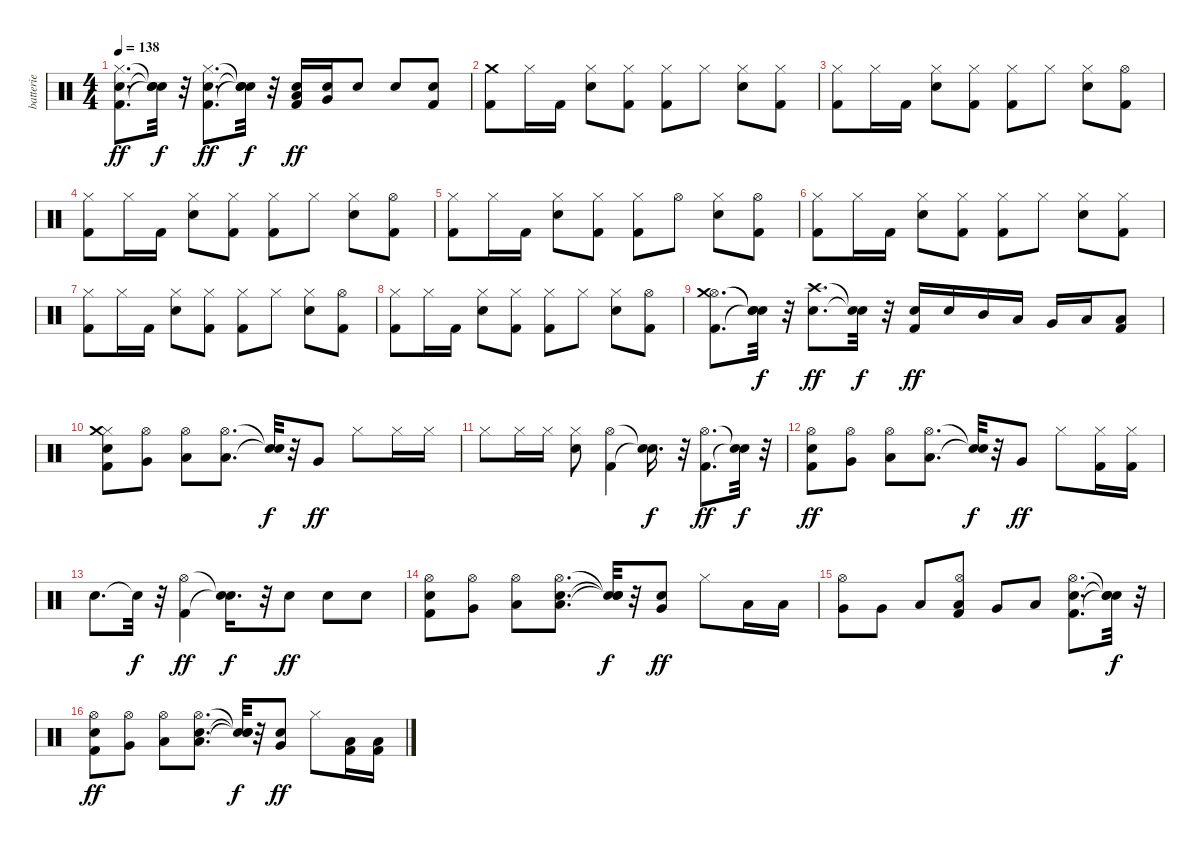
\track ("batterie" "batterie") {instrument percussion}
\staff {score}
\articulation defaults
\ts (4 4)
\tempo 138
\clef neutral
\ks c
("Kick (hit) 2" "Electric Snare (hit)" "Hi-Hat (closed)").8{d dy ff} ("Snare (hit)"{t} "Snare (hit)"{t} "Snare (hit)"{t}).32{dy f} r.32 ("Kick (hit) 2" "Electric Snare (hit)" "Hi-Hat (closed)").8{d dy ff} ("Snare (hit)"{t} "Snare (hit)"{t} "Snare (hit)"{t}).32{dy f} r.32 ("Kick (hit) 2" "Electric Snare (hit)" "Low Tom (hit)").16{dy ff} ("Electric Snare (hit)" "Very Low Tom (hit)").16 "Electric Snare (hit)".8 "Electric Snare (hit)".8 ("Kick (hit) 2" "Electric Snare (hit)").8 |
("Kick (hit) 2" "Crash medium (hit)").8 "Hi-Hat (closed)".16 "Kick (hit) 2".16 ("Electric Snare (hit)" "Hi-Hat (closed)").8 ("Kick (hit) 2" "Hi-Hat (closed)").8 ("Kick (hit) 2" "Hi-Hat (closed)").8 "Hi-Hat (closed)".8 ("Electric Snare (hit)" "Hi-Hat (closed)").8 ("Kick (hit) 2" "Hi-Hat (closed)").8 |
("Kick (hit) 2" "Hi-Hat (closed)").8 "Hi-Hat (closed)".16 "Kick (hit) 2".16 ("Electric Snare (hit)" "Hi-Hat (closed)").8 ("Kick (hit) 2" "Hi-Hat (closed)").8 ("Kick (hit) 2" "Hi-Hat (closed)").8 "Hi-Hat (closed)".8 ("Electric Snare (hit)" "Hi-Hat (closed)").8 ("Kick (hit) 2" "Hi-Hat (open)").8 |
("Kick (hit) 2" "Hi-Hat (closed)").8 "Hi-Hat (closed)".16 "Kick (hit) 2".16 ("Electric Snare (hit)" "Hi-Hat (closed)").8 ("Kick (hit) 2" "Hi-Hat (closed)").8 ("Kick (hit) 2" "Hi-Hat (closed)").8 "Hi-Hat (closed)".8 ("Electric Snare (hit)" "Hi-Hat (closed)").8 ("Kick (hit) 2" "Hi-Hat (open)").8 |
("Kick (hit) 2" "Hi-Hat (closed)").8 "Hi-Hat (closed)".16 "Kick (hit) 2".16 ("Electric Snare (hit)" "Hi-Hat (closed)").8 ("Kick (hit) 2" "Hi-Hat (closed)").8 ("Kick (hit) 2" "Hi-Hat (closed)").8 "Hi-Hat (open)".8 ("Electric Snare (hit)" "Hi-Hat (closed)").8 ("Kick (hit) 2" "Hi-Hat (open)").8 |
("Kick (hit) 2" "Hi-Hat (closed)").8 "Hi-Hat (closed)".16 "Kick (hit) 2".16 ("Electric Snare (hit)" "Hi-Hat (closed)").8 ("Kick (hit) 2" "Hi-Hat (closed)").8 ("Kick (hit) 2" "Hi-Hat (closed)").8 "Hi-Hat (closed)".8 ("Electric Snare (hit)" "Hi-Hat (closed)").8 ("Kick (hit) 2" "Hi-Hat (closed)").8 |
("Kick (hit) 2" "Hi-Hat (closed)").8 "Hi-Hat (closed)".16 "Kick (hit) 2".16 ("Electric Snare (hit)" "Hi-Hat (closed)").8 ("Kick (hit) 2" "Hi-Hat (closed)").8 ("Kick (hit) 2" "Hi-Hat (closed)").8 "Hi-Hat (closed)".8 ("Electric Snare (hit)" "Hi-Hat (closed)").8 ("Kick (hit) 2" "Hi-Hat (open)").8 |
("Kick (hit) 2" "Hi-Hat (closed)").8 "Hi-Hat (closed)".16 "Kick (hit) 2".16 ("Electric Snare (hit)" "Hi-Hat (closed)").8 ("Kick (hit) 2" "Hi-Hat (closed)").8 ("Kick (hit) 2" "Hi-Hat (closed)").8 "Hi-Hat (closed)".8 ("Electric Snare (hit)" "Hi-Hat (closed)").8 ("Kick (hit) 2" "Hi-Hat (open)").8 |
("Kick (hit) 2" "Hi-Hat (open)" "Crash medium (hit)").8{d} ("Snare (hit)"{t} "Snare (hit)"{t} "Snare (hit)"{t}).32{dy f} r.32 ("Electric Snare (hit)" "Crash high (hit)").8{d dy ff} ("Snare (hit)"{t} "Snare (hit)"{t}).32{dy f} r.32 ("Kick (hit) 2" "Electric Snare (hit)").16{dy ff} "Electric Snare (hit)".16 "Mid Tom (hit)".16 "Low Tom (hit)".16 "Very Low Tom (hit)".16 "Low Floor Tom (hit)".16 ("Kick (hit) 2" "Low Floor Tom (hit)").8 |
("Kick (hit) 2" "Electric Snare (hit)" "Hi-Hat (closed)" "Crash medium (hit)").8 ("Very Low Tom (hit)" "Hi-Hat (open)").8 ("Low Floor Tom (hit)" "Hi-Hat (open)").8 ("Low Floor Tom (hit)" "Hi-Hat (open)").8{d} ("Snare (hit)"{t} "Snare (hit)"{t}).32{dy f} r.32 "Very Low Tom (hit)".8{dy ff} "Hi-Hat (closed)".8 "Hi-Hat (closed)".16 "Hi-Hat (closed)".16 |
"Hi-Hat (closed)".8 "Hi-Hat (closed)".16 "Hi-Hat (closed)".16 ("Electric Snare (hit)" "Hi-Hat (closed)").8 ("Kick (hit) 2" "Hi-Hat (open)").4 ("Snare (hit)"{t} "Snare (hit)"{t}).16{d dy f} r.32 ("Kick (hit) 2" "Hi-Hat (open)").8{d dy ff} ("Snare (hit)"{t} "Snare (hit)"{t}).32{dy f} r.32 |
("Kick (hit) 2" "Electric Snare (hit)" "Hi-Hat (open)").8{dy ff} ("Very Low Tom (hit)" "Hi-Hat (open)").8 ("Low Floor Tom (hit)" "Hi-Hat (open)").8 ("Low Floor Tom (hit)" "Hi-Hat (open)").8{d} ("Snare (hit)"{t} "Snare (hit)"{t}).32{dy f} r.32 "Very Low Tom (hit)".8{dy ff} "Hi-Hat (closed)".8 ("Kick (hit) 2" "Hi-Hat (closed)").16 ("Kick (hit) 2" "Hi-Hat (closed)").16 |
"Electric Snare (hit)".8{d} "Snare (hit)"{t}.32{dy f} r.32 ("Kick (hit) 2" "Hi-Hat (open)").4{dy ff} ("Snare (hit)"{t} "Snare (hit)"{t}).16{d dy f} r.32 "Electric Snare (hit)".8{dy ff} "Electric Snare (hit)".8 "Electric Snare (hit)".8 |
("Kick (hit) 2" "Electric Snare (hit)" "Hi-Hat (open)").8 ("Very Low Tom (hit)" "Hi-Hat (open)").8 ("Low Floor Tom (hit)" "Hi-Hat (open)").8 ("Electric Snare (hit)" "Low Floor Tom (hit)" "Hi-Hat (open)").8{d} ("Snare (hit)"{t} "Snare (hit)"{t} "Snare (hit)"{t}).32{dy f} r.32 ("Electric Snare (hit)" "Very Low Tom (hit)").8{dy ff} "Hi-Hat (closed)".8 "Low Tom (hit)".16 "Low Tom (hit)".16 |
("Very Low Tom (hit)" "Hi-Hat (open)").8 "Very Low Tom (hit)".8 "Low Floor Tom (hit)".8 ("Kick (hit) 2" "Low Floor Tom (hit)" "Hi-Hat (open)").8 "Very Low Tom (hit)".8 "Low Floor Tom (hit)".8 ("Kick (hit) 2" "Electric Snare (hit)" "Hi-Hat (open)").8{d} ("Snare (hit)"{t} "Snare (hit)"{t} "Snare (hit)"{t}).32{dy f} r.32 |
("Kick (hit) 2" "Electric Snare (hit)" "Hi-Hat (open)").8{dy ff} ("Very Low Tom (hit)" "Hi-Hat (open)").8 ("Low Floor Tom (hit)" "Hi-Hat (open)").8 ("Electric Snare (hit)" "Low Floor Tom (hit)" "Hi-Hat (open)").8{d} ("Snare (hit)"{t} "Snare (hit)"{t} "Snare (hit)"{t}).32{dy f} r.32 ("Electric Snare (hit)" "Very Low Tom (hit)").8{dy ff} "Hi-Hat (closed)".8 ("Kick (hit) 2" "Low Tom (hit)").16 ("Kick (hit) 2" "Low Tom (hit)").16
